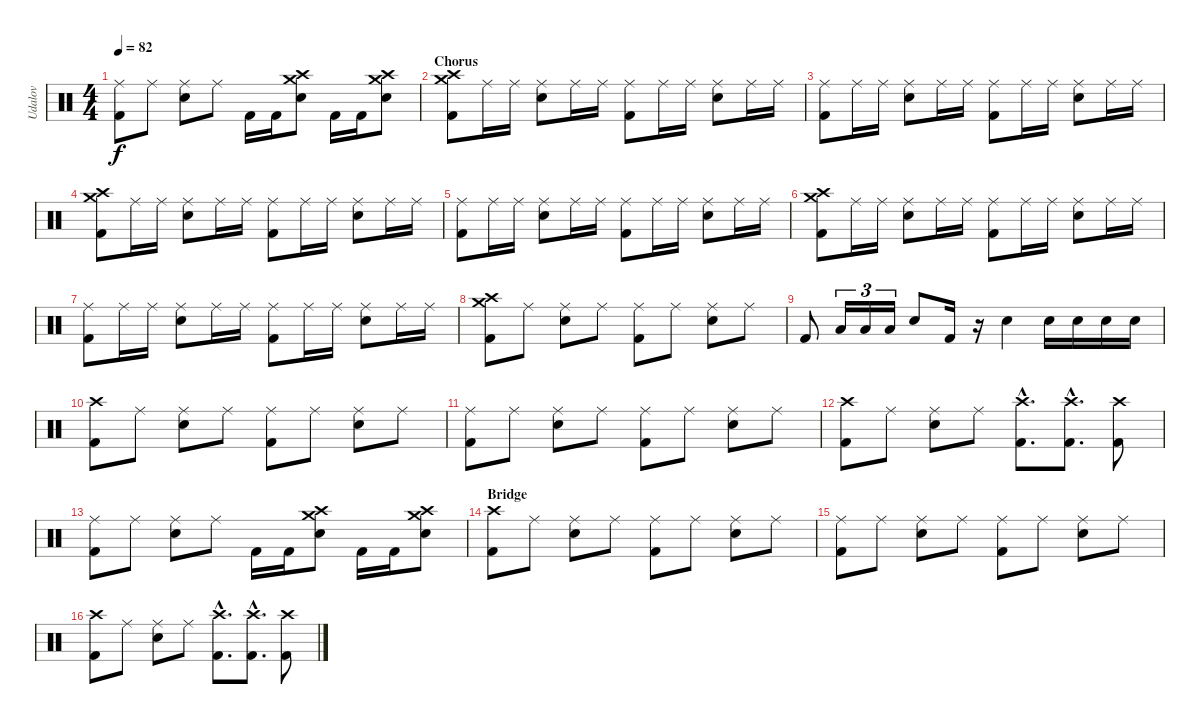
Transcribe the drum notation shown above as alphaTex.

\track ("Udalov" "Udalov") {instrument percussion}
\staff {score}
\articulation defaults
\ts (4 4)
\tempo 82
\clef neutral
\ks c
("Kick (hit) 2" "Ride (middle)").8{dy f} "Ride (middle)".8 ("Snare (hit) 2" "Ride (middle)").8 "Ride (middle)".8 "Kick (hit) 2".16 "Kick (hit) 2".16 ("Snare (hit) 2" "Crash high (hit)" "Crash medium (hit)").8 "Kick (hit) 2".16 "Kick (hit) 2".16 ("Snare (hit) 2" "Crash high (hit)" "Crash medium (hit)").8 |
\section ("" "Chorus")
("Kick (hit) 2" "Crash high (hit)" "Crash medium (hit)").8 "Ride (middle)".16 "Ride (middle)".16 ("Snare (hit) 2" "Ride (middle)").8 "Ride (middle)".16 "Ride (middle)".16 ("Kick (hit) 2" "Ride (middle)").8 "Ride (middle)".16 "Ride (middle)".16 ("Snare (hit) 2" "Ride (middle)").8 "Ride (middle)".16 "Ride (middle)".16 |
("Kick (hit) 2" "Ride (middle)").8 "Ride (middle)".16 "Ride (middle)".16 ("Snare (hit) 2" "Ride (middle)").8 "Ride (middle)".16 "Ride (middle)".16 ("Kick (hit) 2" "Ride (middle)").8 "Ride (middle)".16 "Ride (middle)".16 ("Snare (hit) 2" "Ride (middle)").8 "Ride (middle)".16 "Ride (middle)".16 |
("Kick (hit) 2" "Crash high (hit)" "Crash medium (hit)").8 "Ride (middle)".16 "Ride (middle)".16 ("Snare (hit) 2" "Ride (middle)").8 "Ride (middle)".16 "Ride (middle)".16 ("Kick (hit) 2" "Ride (middle)").8 "Ride (middle)".16 "Ride (middle)".16 ("Snare (hit) 2" "Ride (middle)").8 "Ride (middle)".16 "Ride (middle)".16 |
("Kick (hit) 2" "Ride (middle)").8 "Ride (middle)".16 "Ride (middle)".16 ("Snare (hit) 2" "Ride (middle)").8 "Ride (middle)".16 "Ride (middle)".16 ("Kick (hit) 2" "Ride (middle)").8 "Ride (middle)".16 "Ride (middle)".16 ("Snare (hit) 2" "Ride (middle)").8 "Ride (middle)".16 "Ride (middle)".16 |
("Kick (hit) 2" "Crash high (hit)" "Crash medium (hit)").8 "Ride (middle)".16 "Ride (middle)".16 ("Snare (hit) 2" "Ride (middle)").8 "Ride (middle)".16 "Ride (middle)".16 ("Kick (hit) 2" "Ride (middle)").8 "Ride (middle)".16 "Ride (middle)".16 ("Snare (hit) 2" "Ride (middle)").8 "Ride (middle)".16 "Ride (middle)".16 |
("Kick (hit) 2" "Ride (middle)").8 "Ride (middle)".16 "Ride (middle)".16 ("Snare (hit) 2" "Ride (middle)").8 "Ride (middle)".16 "Ride (middle)".16 ("Kick (hit) 2" "Ride (middle)").8 "Ride (middle)".16 "Ride (middle)".16 ("Snare (hit) 2" "Ride (middle)").8 "Ride (middle)".16 "Ride (middle)".16 |
("Kick (hit) 2" "Crash high (hit)" "Crash medium (hit)").8 "Ride (middle)".8 ("Snare (hit) 2" "Ride (middle)").8 "Ride (middle)".8 ("Kick (hit) 2" "Ride (middle)").8 "Ride (middle)".8 ("Snare (hit) 2" "Ride (middle)").8 "Ride (middle)".8 |
"Kick (hit) 2".8 "Low Tom (hit)".16{tu (3 2)} "Low Tom (hit)".16{tu (3 2)} "Low Tom (hit)".16{tu (3 2)} "Electric Snare (hit)".8 "Kick (hit) 2".16 r.16 "Snare (hit) 2".4 "Snare (hit) 2".16 "Snare (hit) 2".16 "Snare (hit) 2".16 "Snare (hit) 2".16 |
("Kick (hit) 2" "Crash high (hit)").8 "Ride (middle)".8 ("Snare (hit) 2" "Ride (middle)").8 "Ride (middle)".8 ("Kick (hit) 2" "Ride (middle)").8 "Ride (middle)".8 ("Snare (hit) 2" "Ride (middle)").8 "Ride (middle)".8 |
("Kick (hit) 2" "Ride (middle)").8 "Ride (middle)".8 ("Snare (hit) 2" "Ride (middle)").8 "Ride (middle)".8 ("Kick (hit) 2" "Ride (middle)").8 "Ride (middle)".8 ("Snare (hit) 2" "Ride (middle)").8 "Ride (middle)".8 |
("Kick (hit) 2" "Crash high (hit)").8 "Ride (middle)".8 ("Snare (hit) 2" "Ride (middle)").8 "Ride (middle)".8 ("Kick (hit) 2"{hac} "Crash high (hit)"{hac}).8{d} ("Kick (hit) 2"{hac} "Crash high (hit)"{hac}).8{d} ("Kick (hit) 2" "Crash high (hit)").8 |
("Kick (hit) 2" "Ride (middle)").8 "Ride (middle)".8 ("Snare (hit) 2" "Ride (middle)").8 "Ride (middle)".8 "Kick (hit) 2".16 "Kick (hit) 2".16 ("Snare (hit) 2" "Crash high (hit)" "Crash medium (hit)").8 "Kick (hit) 2".16 "Kick (hit) 2".16 ("Snare (hit) 2" "Crash high (hit)" "Crash medium (hit)").8 |
\section ("" "Bridge")
("Kick (hit) 2" "Crash high (hit)").8 "Ride (middle)".8 ("Snare (hit) 2" "Ride (middle)").8 "Ride (middle)".8 ("Kick (hit) 2" "Ride (middle)").8 "Ride (middle)".8 ("Snare (hit) 2" "Ride (middle)").8 "Ride (middle)".8 |
("Kick (hit) 2" "Ride (middle)").8 "Ride (middle)".8 ("Snare (hit) 2" "Ride (middle)").8 "Ride (middle)".8 ("Kick (hit) 2" "Ride (middle)").8 "Ride (middle)".8 ("Snare (hit) 2" "Ride (middle)").8 "Ride (middle)".8 |
("Kick (hit) 2" "Crash high (hit)").8 "Ride (middle)".8 ("Snare (hit) 2" "Ride (middle)").8 "Ride (middle)".8 ("Kick (hit) 2"{hac} "Crash high (hit)"{hac}).8{d} ("Kick (hit) 2"{hac} "Crash high (hit)"{hac}).8{d} ("Kick (hit) 2" "Crash high (hit)").8
